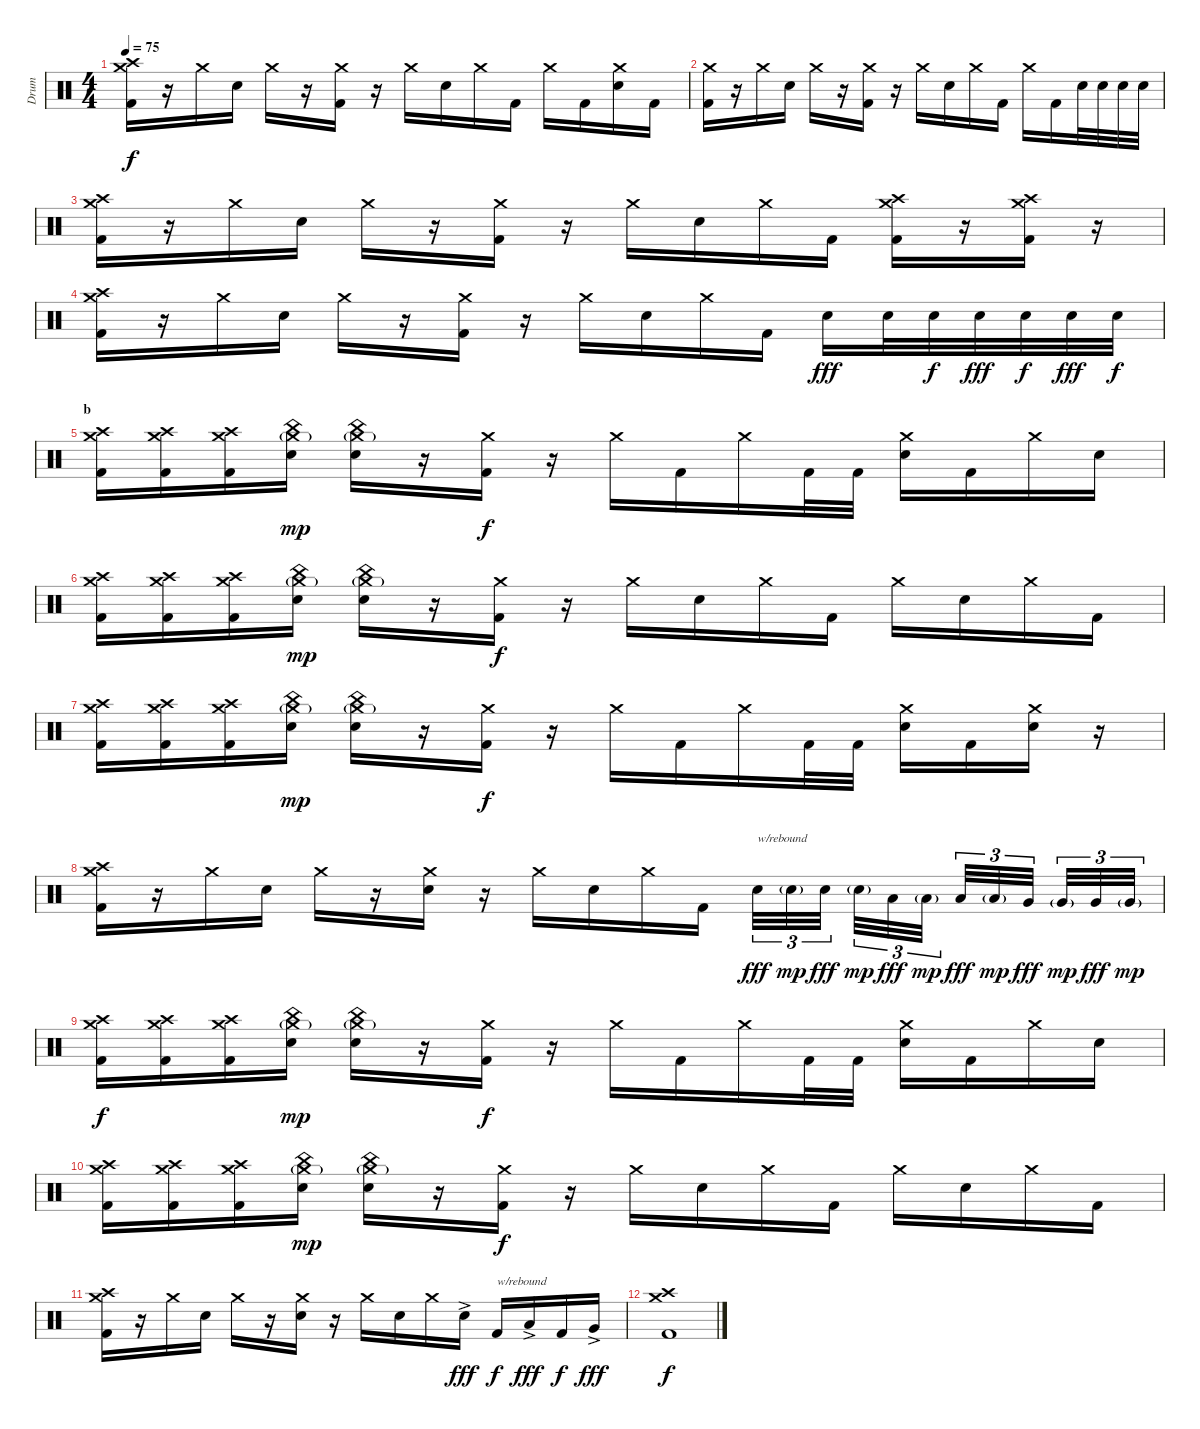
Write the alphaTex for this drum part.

\track ("Drum" "Drum") {instrument percussion}
\staff {score}
\articulation defaults
\ts (4 4)
\tempo 75
\clef neutral
\ks c
("Crash high (hit)" "Crash medium (hit)" "Kick (hit) 2").16{dy f volume 13} r.16 "Crash medium (hit)".16 "Snare (hit) 2".16 "Crash medium (hit)".16 r.16 ("Crash medium (hit)" "Kick (hit) 2").16 r.16 "Crash medium (hit)".16 "Snare (hit) 2".16 "Crash medium (hit)".16 "Kick (hit) 2".16 "Crash medium (hit)".16 "Kick (hit) 2".16 ("Crash medium (hit)" "Snare (hit) 2").16 "Kick (hit) 2".16 |
("Crash medium (hit)" "Kick (hit) 2").16 r.16 "Crash medium (hit)".16 "Snare (hit) 2".16 "Crash medium (hit)".16 r.16 ("Crash medium (hit)" "Kick (hit) 2").16 r.16 "Crash medium (hit)".16 "Snare (hit) 2".16 "Crash medium (hit)".16 "Kick (hit) 2".16 "Crash medium (hit)".16 "Kick (hit) 2".16 "Snare (hit) 2".32 "Snare (hit) 2".32 "Snare (hit) 2".32 "Snare (hit) 2".32 |
("Crash high (hit)" "Crash medium (hit)" "Kick (hit) 2").16 r.16 "Crash medium (hit)".16 "Snare (hit) 2".16 "Crash medium (hit)".16 r.16 ("Crash medium (hit)" "Kick (hit) 2").16 r.16 "Crash medium (hit)".16 "Snare (hit) 2".16 "Crash medium (hit)".16 "Kick (hit) 2".16 ("Crash high (hit)" "Crash medium (hit)" "Kick (hit) 2").16 r.16 ("Crash high (hit)" "Crash medium (hit)" "Kick (hit) 2").16 r.16 |
("Crash high (hit)" "Crash medium (hit)" "Kick (hit) 2").16 r.16 "Crash medium (hit)".16 "Snare (hit) 2".16 "Crash medium (hit)".16 r.16 ("Crash medium (hit)" "Kick (hit) 2").16 r.16 "Crash medium (hit)".16 "Snare (hit) 2".16 "Crash medium (hit)".16 "Kick (hit) 2".16 "Snare (hit) 2".16{dy fff} "Snare (hit) 2".32 "Snare (hit) 2".32{dy f} "Snare (hit) 2".32{dy fff} "Snare (hit) 2".32{dy f} "Snare (hit) 2".32{dy fff} "Snare (hit) 2".32{dy f} |
\section ("" "b")
("Crash high (hit)" "Crash medium (hit)" "Kick (hit) 2").16{volume 14} ("Crash high (hit)" "Crash medium (hit)" "Kick (hit) 2").16 ("Crash high (hit)" "Crash medium (hit)" "Kick (hit) 2").16 ("China (hit)" "Crash medium (hit)"{g} "Snare (hit) 2").16{dy mp} ("China (hit)" "Crash medium (hit)"{g} "Snare (hit) 2").16 r.16 ("Crash medium (hit)" "Kick (hit) 2").16{dy f} r.16 "Crash medium (hit)".16 "Kick (hit) 2".16 "Crash medium (hit)".16 "Kick (hit) 2".32 "Kick (hit) 2".32 ("Crash medium (hit)" "Snare (hit) 2").16 "Kick (hit) 2".16 "Crash medium (hit)".16 "Snare (hit) 2".16 |
("Crash high (hit)" "Crash medium (hit)" "Kick (hit) 2").16{volume 14} ("Crash high (hit)" "Crash medium (hit)" "Kick (hit) 2").16 ("Crash high (hit)" "Crash medium (hit)" "Kick (hit) 2").16 ("China (hit)" "Crash medium (hit)"{g} "Snare (hit) 2").16{dy mp} ("China (hit)" "Crash medium (hit)"{g} "Snare (hit) 2").16 r.16 ("Crash medium (hit)" "Kick (hit) 2").16{dy f} r.16 "Crash medium (hit)".16 "Snare (hit) 2".16 "Crash medium (hit)".16 "Kick (hit) 2".16 "Crash medium (hit)".16 "Snare (hit) 2".16 "Crash medium (hit)".16 "Kick (hit) 2".16 |
("Crash high (hit)" "Crash medium (hit)" "Kick (hit) 2").16{volume 14} ("Crash high (hit)" "Crash medium (hit)" "Kick (hit) 2").16 ("Crash high (hit)" "Crash medium (hit)" "Kick (hit) 2").16 ("China (hit)" "Crash medium (hit)"{g} "Snare (hit) 2").16{dy mp} ("China (hit)" "Crash medium (hit)"{g} "Snare (hit) 2").16 r.16 ("Crash medium (hit)" "Kick (hit) 2").16{dy f} r.16 "Crash medium (hit)".16 "Kick (hit) 2".16 "Crash medium (hit)".16 "Kick (hit) 2".32 "Kick (hit) 2".32 ("Crash medium (hit)" "Snare (hit) 2").16 "Kick (hit) 2".16 ("Crash medium (hit)" "Snare (hit) 2").16 r.16 |
("Crash high (hit)" "Crash medium (hit)" "Kick (hit) 2").16{volume 14} r.16 "Crash medium (hit)".16 "Snare (hit) 2".16 "Crash medium (hit)".16 r.16 ("Crash medium (hit)" "Snare (hit) 2").16 r.16 "Crash medium (hit)".16 "Snare (hit) 2".16 "Crash medium (hit)".16 "Kick (hit) 2".16 "Snare (hit) 2".32{tu (3 2) txt "w/rebound" dy fff} "Snare (hit) 2"{g}.32{tu (3 2) dy mp} "Snare (hit) 2".32{tu (3 2) dy fff} "Snare (hit) 2"{g}.32{tu (3 2) dy mp} "Low Tom (hit)".32{tu (3 2) dy fff} "Low Tom (hit)"{g}.32{tu (3 2) dy mp} "Low Tom (hit)".32{tu (3 2) dy fff} "Low Tom (hit)"{g}.32{tu (3 2) dy mp} "Very Low Tom (hit)".32{tu (3 2) dy fff} "Very Low Tom (hit)"{g}.32{tu (3 2) dy mp} "Very Low Tom (hit)".32{tu (3 2) dy fff} "Very Low Tom (hit)"{g}.32{tu (3 2) dy mp} |
("Crash high (hit)" "Crash medium (hit)" "Kick (hit) 2").16{dy f volume 14} ("Crash high (hit)" "Crash medium (hit)" "Kick (hit) 2").16 ("Crash high (hit)" "Crash medium (hit)" "Kick (hit) 2").16 ("China (hit)" "Crash medium (hit)"{g} "Snare (hit) 2").16{dy mp} ("China (hit)" "Crash medium (hit)"{g} "Snare (hit) 2").16 r.16 ("Crash medium (hit)" "Kick (hit) 2").16{dy f} r.16 "Crash medium (hit)".16 "Kick (hit) 2".16 "Crash medium (hit)".16 "Kick (hit) 2".32 "Kick (hit) 2".32 ("Crash medium (hit)" "Snare (hit) 2").16 "Kick (hit) 2".16 "Crash medium (hit)".16 "Snare (hit) 2".16 |
("Crash high (hit)" "Crash medium (hit)" "Kick (hit) 2").16{volume 14} ("Crash high (hit)" "Crash medium (hit)" "Kick (hit) 2").16 ("Crash high (hit)" "Crash medium (hit)" "Kick (hit) 2").16 ("China (hit)" "Crash medium (hit)"{g} "Snare (hit) 2").16{dy mp} ("China (hit)" "Crash medium (hit)"{g} "Snare (hit) 2").16 r.16 ("Crash medium (hit)" "Kick (hit) 2").16{dy f} r.16 "Crash medium (hit)".16 "Snare (hit) 2".16 "Crash medium (hit)".16 "Kick (hit) 2".16 "Crash medium (hit)".16 "Snare (hit) 2".16 "Crash medium (hit)".16 "Kick (hit) 2".16 |
("Crash high (hit)" "Crash medium (hit)" "Kick (hit) 2").16{volume 14} r.16 "Crash medium (hit)".16 "Snare (hit) 2".16 "Crash medium (hit)".16 r.16 ("Crash medium (hit)" "Snare (hit) 2").16 r.16 "Crash medium (hit)".16 "Snare (hit) 2".16 "Crash medium (hit)".16 "Snare (hit) 2"{ac}.16{dy fff} "Kick (hit) 2".16{txt "w/rebound" dy f} "Low Tom (hit)"{ac}.16{dy fff} "Kick (hit) 2".16{dy f} "Very Low Tom (hit)"{ac}.16{dy fff} |
("Crash high (hit)" "Crash medium (hit)" "Kick (hit) 2").1{dy f volume 14}
